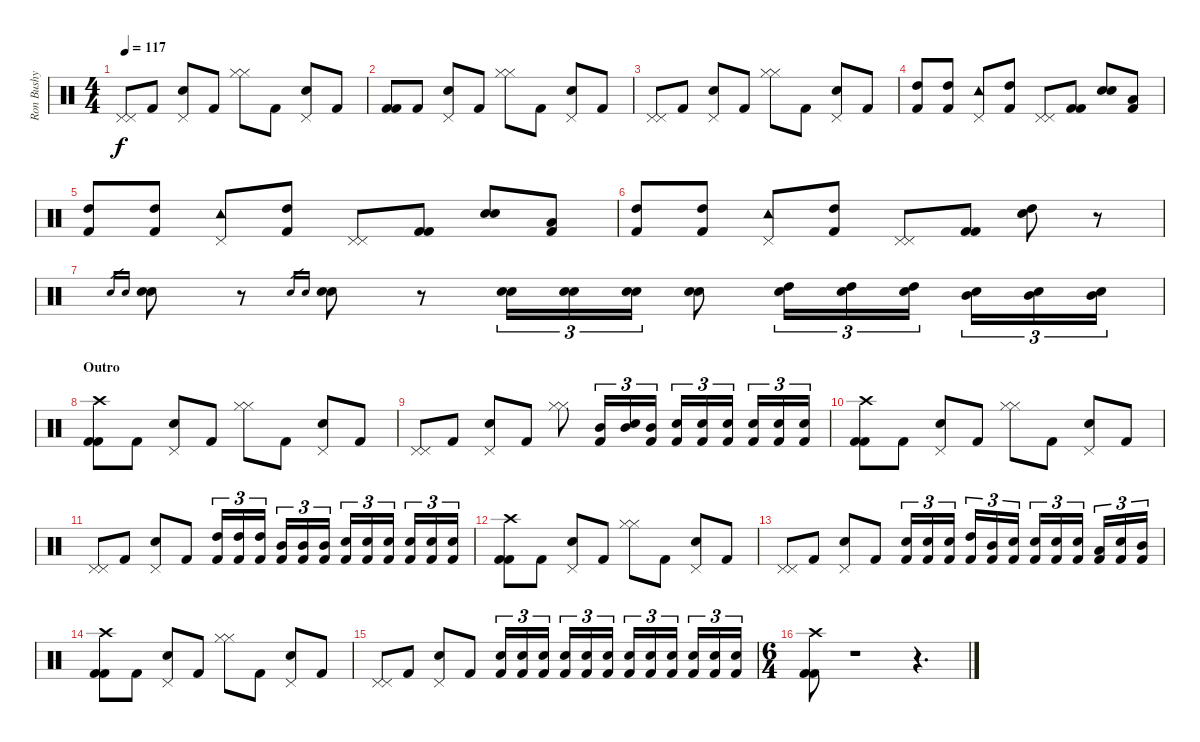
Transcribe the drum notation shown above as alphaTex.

\track ("Ron Bushy" "Ron Bushy") {instrument percussion}
\staff {score}
\articulation defaults
\ts (4 4)
\tempo 117
\clef neutral
\ks c
("Pedal Hi-Hat (hit)" "Pedal Hi-Hat (hit)").8{dy f} "Kick (hit) 2".8 ("Pedal Hi-Hat (hit)" "Snare (hit) 2").8 "Kick (hit) 2".8 ("Hi-Hat (closed)" "Hi-Hat (closed)").8 "Kick (hit) 2".8 ("Pedal Hi-Hat (hit)" "Snare (hit) 2").8 "Kick (hit) 2".8 |
("Kick (hit) 2" "Kick (hit) 2").8 "Kick (hit) 2".8 ("Pedal Hi-Hat (hit)" "Snare (hit) 2").8 "Kick (hit) 2".8 ("Hi-Hat (closed)" "Hi-Hat (closed)").8 "Kick (hit) 2".8 ("Pedal Hi-Hat (hit)" "Snare (hit) 2").8 "Kick (hit) 2".8 |
("Pedal Hi-Hat (hit)" "Pedal Hi-Hat (hit)").8 "Kick (hit) 2".8 ("Pedal Hi-Hat (hit)" "Snare (hit) 2").8 "Kick (hit) 2".8 ("Hi-Hat (closed)" "Hi-Hat (closed)").8 "Kick (hit) 2".8 ("Pedal Hi-Hat (hit)" "Snare (hit) 2").8 "Kick (hit) 2".8 |
("High Tom (hit)" "Kick (hit) 2").8 ("High Tom (hit)" "Kick (hit) 2").8 ("Pedal Hi-Hat (hit)" "Tambourine (hit)").8 ("High Tom (hit)" "Kick (hit) 2").8 ("Pedal Hi-Hat (hit)" "Pedal Hi-Hat (hit)").8 ("Kick (hit) 2" "Kick (hit) 2").8 ("Electric Snare (hit)" "Electric Snare (hit)").8 ("Low Tom (hit)" "Kick (hit) 2").8 |
("High Tom (hit)" "Kick (hit) 2").8 ("High Tom (hit)" "Kick (hit) 2").8 ("Pedal Hi-Hat (hit)" "Tambourine (hit)").8 ("High Tom (hit)" "Kick (hit) 2").8 ("Pedal Hi-Hat (hit)" "Pedal Hi-Hat (hit)").8 ("Kick (hit) 2" "Kick (hit) 2").8 ("Electric Snare (hit)" "Electric Snare (hit)").8 ("Low Tom (hit)" "Kick (hit) 2").8 |
("High Tom (hit)" "Kick (hit) 2").8 ("High Tom (hit)" "Kick (hit) 2").8 ("Pedal Hi-Hat (hit)" "Tambourine (hit)").8 ("High Tom (hit)" "Kick (hit) 2").8 ("Pedal Hi-Hat (hit)" "Pedal Hi-Hat (hit)").8 ("Kick (hit) 2" "Kick (hit) 2").8 ("High Tom (hit)" "Electric Snare (hit)").8 r.8 |
"Snare (hit) 2".16{gr} "Snare (hit) 2".16{gr} ("Electric Snare (hit)" "Electric Snare (hit)").8 r.8 "Snare (hit) 2".16{gr} "Snare (hit) 2".16{gr} ("Electric Snare (hit)" "Electric Snare (hit)").8 r.8 ("Electric Snare (hit)" "Electric Snare (hit)").16{tu (3 2)} ("Electric Snare (hit)" "Electric Snare (hit)").16{tu (3 2)} ("Electric Snare (hit)" "Electric Snare (hit)").16{tu (3 2)} ("Snare (hit) 2" "Snare (hit) 2").8 ("Electric Snare (hit)" "High Tom (hit)").16{tu (3 2)} ("Electric Snare (hit)" "High Tom (hit)").16{tu (3 2)} ("Electric Snare (hit)" "High Tom (hit)").16{tu (3 2)} ("Snare (hit) 2" "Mid Tom (hit)").16{tu (3 2)} ("Snare (hit) 2" "Mid Tom (hit)").16{tu (3 2)} ("Snare (hit) 2" "Mid Tom (hit)").16{tu (3 2)} |
\section ("" "Outro")
("Crash high (hit)" "Kick (hit) 2" "Kick (hit) 2").8 "Kick (hit) 2".8 ("Pedal Hi-Hat (hit)" "Snare (hit) 2").8 "Kick (hit) 2".8 ("Hi-Hat (closed)" "Hi-Hat (closed)").8 "Kick (hit) 2".8 ("Pedal Hi-Hat (hit)" "Snare (hit) 2").8 "Kick (hit) 2".8 |
("Pedal Hi-Hat (hit)" "Pedal Hi-Hat (hit)").8 "Kick (hit) 2".8 ("Pedal Hi-Hat (hit)" "Snare (hit) 2").8 "Kick (hit) 2".8 ("Hi-Hat (closed)" "Hi-Hat (closed)").8 ("Mid Tom (hit)" "Kick (hit) 2").16{tu (3 2)} ("Mid Tom (hit)" "Snare (hit) 2").16{tu (3 2)} ("Mid Tom (hit)" "Kick (hit) 2").16{tu (3 2)} ("Electric Snare (hit)" "Kick (hit) 2").16{tu (3 2)} ("Electric Snare (hit)" "Kick (hit) 2").16{tu (3 2)} ("Electric Snare (hit)" "Kick (hit) 2").16{tu (3 2)} ("Snare (hit) 2" "Kick (hit) 2").16{tu (3 2)} ("Snare (hit) 2" "Kick (hit) 2").16{tu (3 2)} ("Snare (hit) 2" "Kick (hit) 2").16{tu (3 2)} |
("Crash high (hit)" "Kick (hit) 2" "Kick (hit) 2").8 "Kick (hit) 2".8 ("Pedal Hi-Hat (hit)" "Snare (hit) 2").8 "Kick (hit) 2".8 ("Hi-Hat (closed)" "Hi-Hat (closed)").8 "Kick (hit) 2".8 ("Pedal Hi-Hat (hit)" "Snare (hit) 2").8 "Kick (hit) 2".8 |
("Pedal Hi-Hat (hit)" "Pedal Hi-Hat (hit)").8 "Kick (hit) 2".8 ("Pedal Hi-Hat (hit)" "Snare (hit) 2").8 "Kick (hit) 2".8 ("High Tom (hit)" "Kick (hit) 2").16{tu (3 2)} ("High Tom (hit)" "Kick (hit) 2").16{tu (3 2)} ("High Tom (hit)" "Kick (hit) 2").16{tu (3 2)} ("Mid Tom (hit)" "Kick (hit) 2").16{tu (3 2)} ("Mid Tom (hit)" "Kick (hit) 2").16{tu (3 2)} ("Mid Tom (hit)" "Kick (hit) 2").16{tu (3 2)} ("Snare (hit) 2" "Kick (hit) 2").16{tu (3 2)} ("Snare (hit) 2" "Kick (hit) 2").16{tu (3 2)} ("Snare (hit) 2" "Kick (hit) 2").16{tu (3 2)} ("Electric Snare (hit)" "Kick (hit) 2").16{tu (3 2)} ("Electric Snare (hit)" "Kick (hit) 2").16{tu (3 2)} ("Electric Snare (hit)" "Kick (hit) 2").16{tu (3 2)} |
("Crash high (hit)" "Kick (hit) 2" "Kick (hit) 2").8 "Kick (hit) 2".8 ("Pedal Hi-Hat (hit)" "Snare (hit) 2").8 "Kick (hit) 2".8 ("Hi-Hat (closed)" "Hi-Hat (closed)").8 "Kick (hit) 2".8 ("Pedal Hi-Hat (hit)" "Snare (hit) 2").8 "Kick (hit) 2".8 |
("Pedal Hi-Hat (hit)" "Pedal Hi-Hat (hit)").8 "Kick (hit) 2".8 ("Pedal Hi-Hat (hit)" "Snare (hit) 2").8 "Kick (hit) 2".8 ("Electric Snare (hit)" "Kick (hit) 2").16{tu (3 2)} ("Electric Snare (hit)" "Kick (hit) 2").16{tu (3 2)} ("Electric Snare (hit)" "Kick (hit) 2").16{tu (3 2)} ("High Tom (hit)" "Kick (hit) 2").16{tu (3 2)} ("Mid Tom (hit)" "Kick (hit) 2").16{tu (3 2)} ("Snare (hit) 2" "Kick (hit) 2").16{tu (3 2)} ("Electric Snare (hit)" "Kick (hit) 2").16{tu (3 2)} ("Electric Snare (hit)" "Kick (hit) 2").16{tu (3 2)} ("Electric Snare (hit)" "Kick (hit) 2").16{tu (3 2)} ("Low Tom (hit)" "Kick (hit) 2").16{tu (3 2)} ("Snare (hit) 2" "Kick (hit) 2").16{tu (3 2)} ("Mid Tom (hit)" "Kick (hit) 2").16{tu (3 2)} |
("Crash high (hit)" "Kick (hit) 2" "Kick (hit) 2").8 "Kick (hit) 2".8 ("Pedal Hi-Hat (hit)" "Snare (hit) 2").8 "Kick (hit) 2".8 ("Hi-Hat (closed)" "Hi-Hat (closed)").8 "Kick (hit) 2".8 ("Pedal Hi-Hat (hit)" "Snare (hit) 2").8 "Kick (hit) 2".8 |
("Pedal Hi-Hat (hit)" "Pedal Hi-Hat (hit)").8 "Kick (hit) 2".8 ("Pedal Hi-Hat (hit)" "Snare (hit) 2").8 "Kick (hit) 2".8 ("Snare (hit) 2" "Kick (hit) 2").16{tu (3 2)} ("Snare (hit) 2" "Kick (hit) 2").16{tu (3 2)} ("Snare (hit) 2" "Kick (hit) 2").16{tu (3 2)} ("Snare (hit) 2" "Kick (hit) 2").16{tu (3 2)} ("Snare (hit) 2" "Kick (hit) 2").16{tu (3 2)} ("Snare (hit) 2" "Kick (hit) 2").16{tu (3 2)} ("Electric Snare (hit)" "Kick (hit) 2").16{tu (3 2)} ("Electric Snare (hit)" "Kick (hit) 2").16{tu (3 2)} ("Electric Snare (hit)" "Kick (hit) 2").16{tu (3 2)} ("Electric Snare (hit)" "Kick (hit) 2").16{tu (3 2)} ("Electric Snare (hit)" "Kick (hit) 2").16{tu (3 2)} ("Electric Snare (hit)" "Kick (hit) 2").16{tu (3 2)} |
\ts (6 4)
("Crash high (hit)" "Kick (hit) 2" "Kick (hit) 2").8 r.1 r.4{d}
